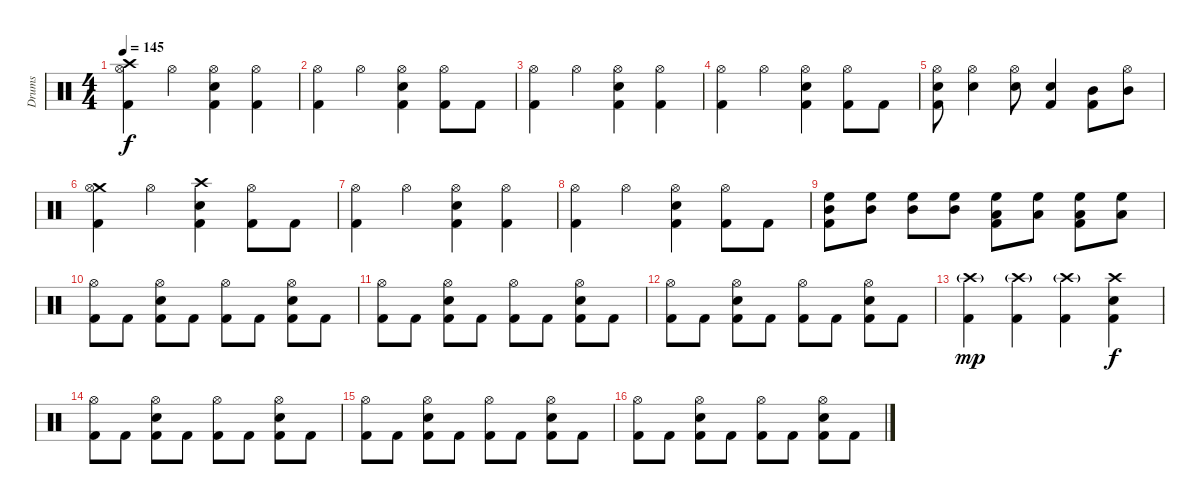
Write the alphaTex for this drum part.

\track ("Drums" "Drums") {instrument percussion}
\staff {score}
\articulation defaults
\ts (4 4)
\tempo 145
\clef neutral
\ks c
("Crash high (hit)" "Hi-Hat (open)" "Kick (hit) 2").4{dy f} "Hi-Hat (open)".4 ("Snare (hit) 2" "Hi-Hat (open)" "Kick (hit) 2").4 ("Hi-Hat (open)" "Kick (hit) 2").4 |
("Hi-Hat (open)" "Kick (hit) 2").4 "Hi-Hat (open)".4 ("Snare (hit) 2" "Hi-Hat (open)" "Kick (hit) 2").4 ("Hi-Hat (open)" "Kick (hit) 2").8 "Kick (hit) 2".8 |
("Hi-Hat (open)" "Kick (hit) 2").4 "Hi-Hat (open)".4 ("Snare (hit) 2" "Hi-Hat (open)" "Kick (hit) 2").4 ("Hi-Hat (open)" "Kick (hit) 2").4 |
("Hi-Hat (open)" "Kick (hit) 2").4 "Hi-Hat (open)".4 ("Snare (hit) 2" "Hi-Hat (open)" "Kick (hit) 2").4 ("Hi-Hat (open)" "Kick (hit) 2").8 "Kick (hit) 2".8 |
("Snare (hit) 2" "Hi-Hat (open)" "Kick (hit) 2").8 ("Snare (hit) 2" "Hi-Hat (open)").4 ("Snare (hit) 2" "Hi-Hat (open)").8 ("Snare (hit) 2" "Kick (hit) 2").4 ("Mid Tom (hit)" "Kick (hit) 2").8 ("Mid Tom (hit)" "Hi-Hat (open)").8 |
("Crash medium (hit)" "Hi-Hat (open)" "Kick (hit) 2").4 "Hi-Hat (open)".4 ("Snare (hit) 2" "Crash high (hit)" "Kick (hit) 2").4 ("Hi-Hat (open)" "Kick (hit) 2").8 "Kick (hit) 2".8 |
("Hi-Hat (open)" "Kick (hit) 2").4 "Hi-Hat (open)".4 ("Snare (hit) 2" "Hi-Hat (open)" "Kick (hit) 2").4 ("Hi-Hat (open)" "Kick (hit) 2").4 |
("Hi-Hat (open)" "Kick (hit) 2").4 "Hi-Hat (open)".4 ("Snare (hit) 2" "Hi-Hat (open)" "Kick (hit) 2").4 ("Hi-Hat (open)" "Kick (hit) 2").8 "Kick (hit) 2".8 |
("Mid Tom (hit)" "High Floor Tom (hit)" "Kick (hit) 2").8 ("Mid Tom (hit)" "High Floor Tom (hit)").8 ("Mid Tom (hit)" "High Floor Tom (hit)").8 ("Mid Tom (hit)" "High Floor Tom (hit)").8 ("Low Floor Tom (hit)" "High Floor Tom (hit)" "Kick (hit) 2").8 ("Low Floor Tom (hit)" "High Floor Tom (hit)").8 ("Low Floor Tom (hit)" "High Floor Tom (hit)" "Kick (hit) 2").8 ("Low Floor Tom (hit)" "High Floor Tom (hit)").8 |
("Hi-Hat (open)" "Kick (hit) 2").8 "Kick (hit) 2".8 ("Snare (hit) 2" "Hi-Hat (open)" "Kick (hit) 2").8 "Kick (hit) 2".8 ("Hi-Hat (open)" "Kick (hit) 2").8 "Kick (hit) 2".8 ("Snare (hit) 2" "Hi-Hat (open)" "Kick (hit) 2").8 "Kick (hit) 2".8 |
("Hi-Hat (open)" "Kick (hit) 2").8 "Kick (hit) 2".8 ("Snare (hit) 2" "Hi-Hat (open)" "Kick (hit) 2").8 "Kick (hit) 2".8 ("Hi-Hat (open)" "Kick (hit) 2").8 "Kick (hit) 2".8 ("Snare (hit) 2" "Hi-Hat (open)" "Kick (hit) 2").8 "Kick (hit) 2".8 |
("Hi-Hat (open)" "Kick (hit) 2").8 "Kick (hit) 2".8 ("Snare (hit) 2" "Hi-Hat (open)" "Kick (hit) 2").8 "Kick (hit) 2".8 ("Hi-Hat (open)" "Kick (hit) 2").8 "Kick (hit) 2".8 ("Snare (hit) 2" "Hi-Hat (open)" "Kick (hit) 2").8 "Kick (hit) 2".8 |
("Crash high (hit)"{g} "Kick (hit) 2").4{dy mp} ("Crash high (hit)"{g} "Kick (hit) 2").4 ("Crash high (hit)"{g} "Kick (hit) 2").4 ("Snare (hit) 2" "Crash high (hit)" "Kick (hit) 2").4{dy f} |
("Hi-Hat (open)" "Kick (hit) 2").8 "Kick (hit) 2".8 ("Snare (hit) 2" "Hi-Hat (open)" "Kick (hit) 2").8 "Kick (hit) 2".8 ("Hi-Hat (open)" "Kick (hit) 2").8 "Kick (hit) 2".8 ("Snare (hit) 2" "Hi-Hat (open)" "Kick (hit) 2").8 "Kick (hit) 2".8 |
("Hi-Hat (open)" "Kick (hit) 2").8 "Kick (hit) 2".8 ("Snare (hit) 2" "Hi-Hat (open)" "Kick (hit) 2").8 "Kick (hit) 2".8 ("Hi-Hat (open)" "Kick (hit) 2").8 "Kick (hit) 2".8 ("Snare (hit) 2" "Hi-Hat (open)" "Kick (hit) 2").8 "Kick (hit) 2".8 |
("Hi-Hat (open)" "Kick (hit) 2").8 "Kick (hit) 2".8 ("Snare (hit) 2" "Hi-Hat (open)" "Kick (hit) 2").8 "Kick (hit) 2".8 ("Hi-Hat (open)" "Kick (hit) 2").8 "Kick (hit) 2".8 ("Snare (hit) 2" "Hi-Hat (open)" "Kick (hit) 2").8 "Kick (hit) 2".8
